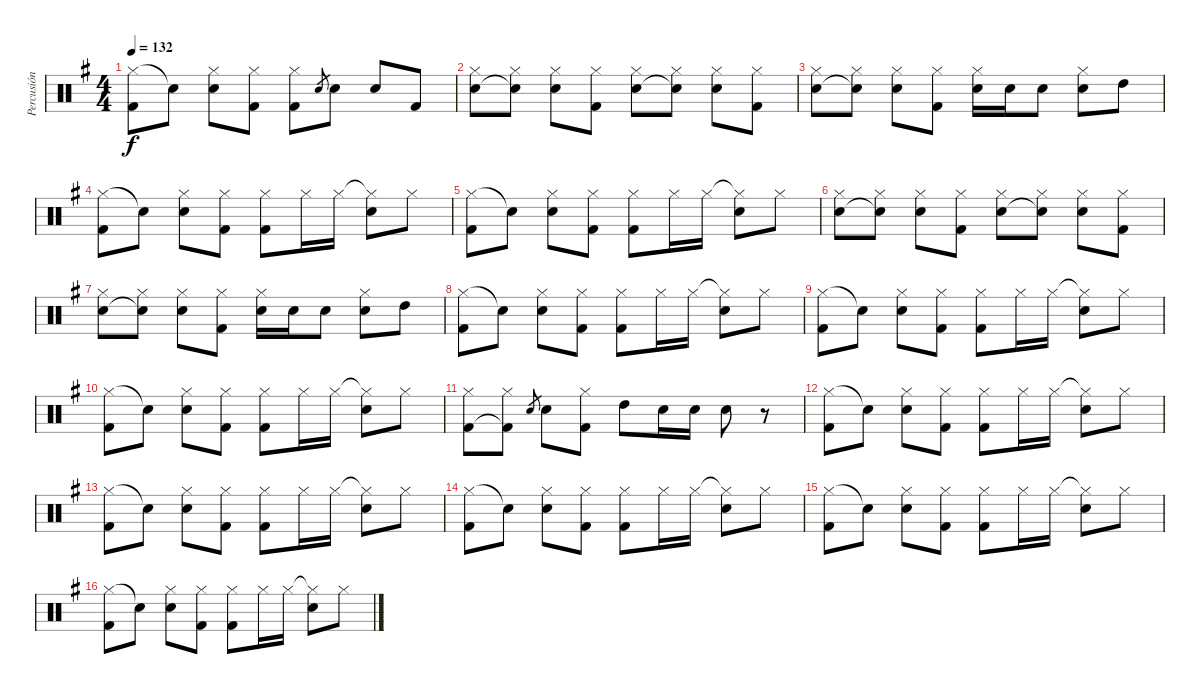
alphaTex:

\track ("Percusión" "Percusión") {instrument percussion}
\staff {score}
\articulation defaults
\ts (4 4)
\tempo 132
\clef neutral
\ks eminor
("Hi-Hat (closed)" "Kick (hit) 2").8{dy f} "Snare (hit)"{t}.8 ("Hi-Hat (closed)" "Electric Snare (hit)").8 ("Hi-Hat (closed)" "Kick (hit) 2").8 ("Hi-Hat (closed)" "Kick (hit) 2").8 "Electric Snare (hit)".8{gr} "Electric Snare (hit)".8 "Electric Snare (hit)".8 "Kick (hit) 2".8 |
("Hi-Hat (closed)" "Electric Snare (hit)").8 ("Hi-Hat (closed)" "Snare (hit)"{t}).8 ("Hi-Hat (closed)" "Electric Snare (hit)").8 ("Hi-Hat (closed)" "Kick (hit) 2").8 ("Hi-Hat (closed)" "Electric Snare (hit)").8 ("Hi-Hat (closed)" "Snare (hit)"{t}).8 ("Hi-Hat (closed)" "Electric Snare (hit)").8 ("Hi-Hat (closed)" "Kick (hit) 2").8 |
("Hi-Hat (closed)" "Electric Snare (hit)").8 ("Hi-Hat (closed)" "Snare (hit)"{t}).8 ("Hi-Hat (closed)" "Electric Snare (hit)").8 ("Hi-Hat (closed)" "Kick (hit) 2").8 ("Hi-Hat (closed)" "Electric Snare (hit)").16 "Electric Snare (hit)".16 "Electric Snare (hit)".8 ("Hi-Hat (closed)" "Electric Snare (hit)").8 "High Tom (hit)".8 |
("Hi-Hat (closed)" "Kick (hit) 2").8 "Snare (hit)"{t}.8 ("Hi-Hat (closed)" "Electric Snare (hit)").8 ("Hi-Hat (closed)" "Kick (hit) 2").8 ("Hi-Hat (closed)" "Kick (hit) 2").8 "Hi-Hat (closed)".16 "Hi-Hat (closed)".16 ("Hi-Hat (closed)"{t} "Electric Snare (hit)").8 "Hi-Hat (closed)".8 |
("Hi-Hat (closed)" "Kick (hit) 2").8 "Snare (hit)"{t}.8 ("Hi-Hat (closed)" "Electric Snare (hit)").8 ("Hi-Hat (closed)" "Kick (hit) 2").8 ("Hi-Hat (closed)" "Kick (hit) 2").8 "Hi-Hat (closed)".16 "Hi-Hat (closed)".16 ("Hi-Hat (closed)"{t} "Electric Snare (hit)").8 "Hi-Hat (closed)".8 |
("Hi-Hat (closed)" "Electric Snare (hit)").8 ("Hi-Hat (closed)" "Snare (hit)"{t}).8 ("Hi-Hat (closed)" "Electric Snare (hit)").8 ("Hi-Hat (closed)" "Kick (hit) 2").8 ("Hi-Hat (closed)" "Electric Snare (hit)").8 ("Hi-Hat (closed)" "Snare (hit)"{t}).8 ("Hi-Hat (closed)" "Electric Snare (hit)").8 ("Hi-Hat (closed)" "Kick (hit) 2").8 |
("Hi-Hat (closed)" "Electric Snare (hit)").8 ("Hi-Hat (closed)" "Snare (hit)"{t}).8 ("Hi-Hat (closed)" "Electric Snare (hit)").8 ("Hi-Hat (closed)" "Kick (hit) 2").8 ("Hi-Hat (closed)" "Electric Snare (hit)").16 "Electric Snare (hit)".16 "Electric Snare (hit)".8 ("Hi-Hat (closed)" "Electric Snare (hit)").8 "High Tom (hit)".8 |
("Hi-Hat (closed)" "Kick (hit) 2").8 "Snare (hit)"{t}.8 ("Hi-Hat (closed)" "Electric Snare (hit)").8 ("Hi-Hat (closed)" "Kick (hit) 2").8 ("Hi-Hat (closed)" "Kick (hit) 2").8 "Hi-Hat (closed)".16 "Hi-Hat (closed)".16 ("Hi-Hat (closed)"{t} "Electric Snare (hit)").8 "Hi-Hat (closed)".8 |
("Hi-Hat (closed)" "Kick (hit) 2").8 "Snare (hit)"{t}.8 ("Hi-Hat (closed)" "Electric Snare (hit)").8 ("Hi-Hat (closed)" "Kick (hit) 2").8 ("Hi-Hat (closed)" "Kick (hit) 2").8 "Hi-Hat (closed)".16 "Hi-Hat (closed)".16 ("Hi-Hat (closed)"{t} "Electric Snare (hit)").8 "Hi-Hat (closed)".8 |
("Hi-Hat (closed)" "Kick (hit) 2").8 "Snare (hit)"{t}.8 ("Hi-Hat (closed)" "Electric Snare (hit)").8 ("Hi-Hat (closed)" "Kick (hit) 2").8 ("Hi-Hat (closed)" "Kick (hit) 2").8 "Hi-Hat (closed)".16 "Hi-Hat (closed)".16 ("Hi-Hat (closed)"{t} "Electric Snare (hit)").8 "Hi-Hat (closed)".8 |
("Hi-Hat (closed)" "Kick (hit) 2").8 ("Hi-Hat (closed)" "Kick (hit) 2"{t}).8 "Electric Snare (hit)".8{gr} "Electric Snare (hit)".8 ("Hi-Hat (closed)" "Kick (hit) 2").8 "High Tom (hit)".8 "Electric Snare (hit)".16 "Electric Snare (hit)".16 "Electric Snare (hit)".8 r.8 |
("Hi-Hat (closed)" "Kick (hit) 2").8 "Snare (hit)"{t}.8 ("Hi-Hat (closed)" "Electric Snare (hit)").8 ("Hi-Hat (closed)" "Kick (hit) 2").8 ("Hi-Hat (closed)" "Kick (hit) 2").8 "Hi-Hat (closed)".16 "Hi-Hat (closed)".16 ("Hi-Hat (closed)"{t} "Electric Snare (hit)").8 "Hi-Hat (closed)".8 |
("Hi-Hat (closed)" "Kick (hit) 2").8 "Snare (hit)"{t}.8 ("Hi-Hat (closed)" "Electric Snare (hit)").8 ("Hi-Hat (closed)" "Kick (hit) 2").8 ("Hi-Hat (closed)" "Kick (hit) 2").8 "Hi-Hat (closed)".16 "Hi-Hat (closed)".16 ("Hi-Hat (closed)"{t} "Electric Snare (hit)").8 "Hi-Hat (closed)".8 |
("Hi-Hat (closed)" "Kick (hit) 2").8 "Snare (hit)"{t}.8 ("Hi-Hat (closed)" "Electric Snare (hit)").8 ("Hi-Hat (closed)" "Kick (hit) 2").8 ("Hi-Hat (closed)" "Kick (hit) 2").8 "Hi-Hat (closed)".16 "Hi-Hat (closed)".16 ("Hi-Hat (closed)"{t} "Electric Snare (hit)").8 "Hi-Hat (closed)".8 |
("Hi-Hat (closed)" "Kick (hit) 2").8 "Snare (hit)"{t}.8 ("Hi-Hat (closed)" "Electric Snare (hit)").8 ("Hi-Hat (closed)" "Kick (hit) 2").8 ("Hi-Hat (closed)" "Kick (hit) 2").8 "Hi-Hat (closed)".16 "Hi-Hat (closed)".16 ("Hi-Hat (closed)"{t} "Electric Snare (hit)").8 "Hi-Hat (closed)".8 |
("Hi-Hat (closed)" "Kick (hit) 2").8 "Snare (hit)"{t}.8 ("Hi-Hat (closed)" "Electric Snare (hit)").8 ("Hi-Hat (closed)" "Kick (hit) 2").8 ("Hi-Hat (closed)" "Kick (hit) 2").8 "Hi-Hat (closed)".16 "Hi-Hat (closed)".16 ("Hi-Hat (closed)"{t} "Electric Snare (hit)").8 "Hi-Hat (closed)".8
